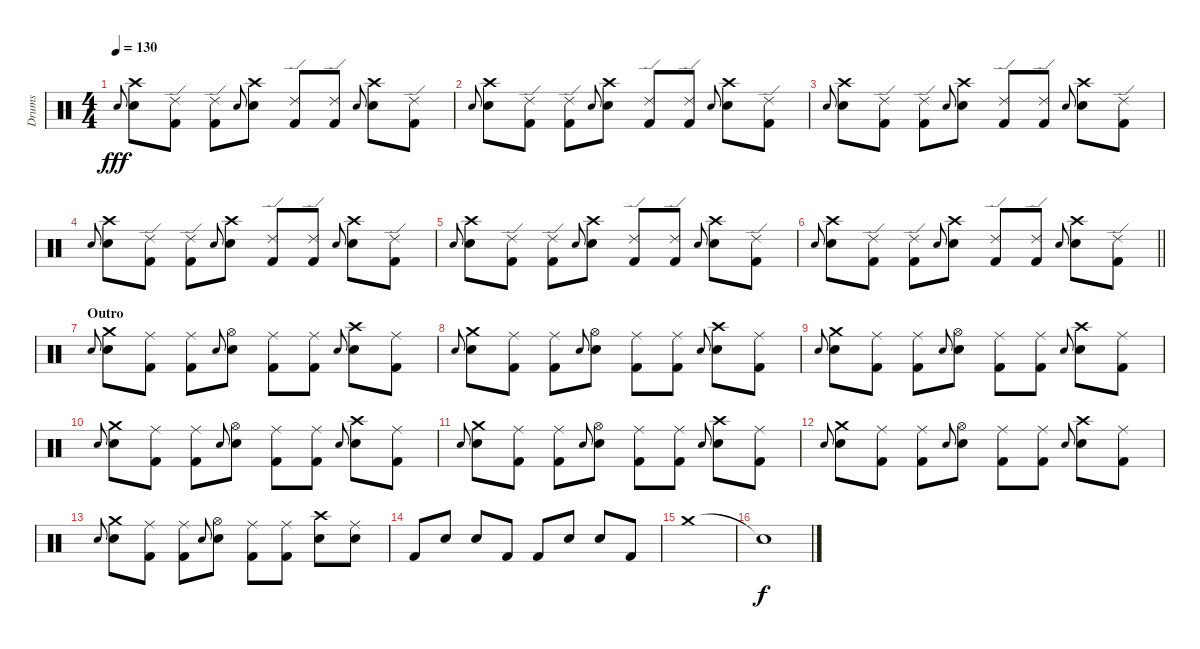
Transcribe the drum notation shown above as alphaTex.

\track ("Drums" "Drums") {instrument percussion}
\staff {score}
\articulation defaults
\ts (4 4)
\tempo 130
\clef neutral
\ks c "Electric Snare (hit)".8{gr onbeat dy fff}
("Crash high (hit)" "Electric Snare (hit)").8 ("Ride (edge) 2" "Kick (hit) 2").8 ("Ride (edge) 2" "Kick (hit) 2").8 "Electric Snare (hit)".8{gr onbeat} ("Crash high (hit)" "Electric Snare (hit)").8 ("Ride (edge) 2" "Kick (hit) 2").8 ("Ride (edge) 2" "Kick (hit) 2").8 "Electric Snare (hit)".8{gr onbeat} ("Crash high (hit)" "Electric Snare (hit)").8 ("Ride (edge) 2" "Kick (hit) 2").8 |
"Electric Snare (hit)".8{gr onbeat} ("Crash high (hit)" "Electric Snare (hit)").8 ("Ride (edge) 2" "Kick (hit) 2").8 ("Ride (edge) 2" "Kick (hit) 2").8 "Electric Snare (hit)".8{gr onbeat} ("Crash high (hit)" "Electric Snare (hit)").8 ("Ride (edge) 2" "Kick (hit) 2").8 ("Ride (edge) 2" "Kick (hit) 2").8 "Electric Snare (hit)".8{gr onbeat} ("Crash high (hit)" "Electric Snare (hit)").8 ("Ride (edge) 2" "Kick (hit) 2").8 |
"Electric Snare (hit)".8{gr onbeat} ("Crash high (hit)" "Electric Snare (hit)").8 ("Ride (edge) 2" "Kick (hit) 2").8 ("Ride (edge) 2" "Kick (hit) 2").8 "Electric Snare (hit)".8{gr onbeat} ("Crash high (hit)" "Electric Snare (hit)").8 ("Ride (edge) 2" "Kick (hit) 2").8 ("Ride (edge) 2" "Kick (hit) 2").8 "Electric Snare (hit)".8{gr onbeat} ("Crash high (hit)" "Electric Snare (hit)").8 ("Ride (edge) 2" "Kick (hit) 2").8 |
"Electric Snare (hit)".8{gr onbeat} ("Crash high (hit)" "Electric Snare (hit)").8 ("Ride (edge) 2" "Kick (hit) 2").8 ("Ride (edge) 2" "Kick (hit) 2").8 "Electric Snare (hit)".8{gr onbeat} ("Crash high (hit)" "Electric Snare (hit)").8 ("Ride (edge) 2" "Kick (hit) 2").8 ("Ride (edge) 2" "Kick (hit) 2").8 "Electric Snare (hit)".8{gr onbeat} ("Crash high (hit)" "Electric Snare (hit)").8 ("Ride (edge) 2" "Kick (hit) 2").8 |
"Electric Snare (hit)".8{gr onbeat} ("Crash high (hit)" "Electric Snare (hit)").8 ("Ride (edge) 2" "Kick (hit) 2").8 ("Ride (edge) 2" "Kick (hit) 2").8 "Electric Snare (hit)".8{gr onbeat} ("Crash high (hit)" "Electric Snare (hit)").8 ("Ride (edge) 2" "Kick (hit) 2").8 ("Ride (edge) 2" "Kick (hit) 2").8 "Electric Snare (hit)".8{gr onbeat} ("Crash high (hit)" "Electric Snare (hit)").8 ("Ride (edge) 2" "Kick (hit) 2").8 |
\barLineRight lightlight "Electric Snare (hit)".8{gr onbeat}
("Crash high (hit)" "Electric Snare (hit)").8 ("Ride (edge) 2" "Kick (hit) 2").8 ("Ride (edge) 2" "Kick (hit) 2").8 "Electric Snare (hit)".8{gr onbeat} ("Crash high (hit)" "Electric Snare (hit)").8 ("Ride (edge) 2" "Kick (hit) 2").8 ("Ride (edge) 2" "Kick (hit) 2").8 "Electric Snare (hit)".8{gr onbeat} ("Crash high (hit)" "Electric Snare (hit)").8 ("Ride (edge) 2" "Kick (hit) 2").8 |
\section ("" "Outro")
"Electric Snare (hit)".8{gr onbeat} ("Crash medium (hit)" "Electric Snare (hit)").8 ("Ride (middle)" "Kick (hit) 2").8 ("Ride (middle)" "Kick (hit) 2").8 "Electric Snare (hit)".8{gr onbeat} ("Hi-Hat (open)" "Electric Snare (hit)").8 ("Ride (middle)" "Kick (hit) 2").8 ("Ride (middle)" "Kick (hit) 2").8 "Electric Snare (hit)".8{gr onbeat} ("Crash high (hit)" "Electric Snare (hit)").8 ("Ride (middle)" "Kick (hit) 2").8 |
"Electric Snare (hit)".8{gr onbeat} ("Crash medium (hit)" "Electric Snare (hit)").8 ("Ride (middle)" "Kick (hit) 2").8 ("Ride (middle)" "Kick (hit) 2").8 "Electric Snare (hit)".8{gr onbeat} ("Hi-Hat (open)" "Electric Snare (hit)").8 ("Ride (middle)" "Kick (hit) 2").8 ("Ride (middle)" "Kick (hit) 2").8 "Electric Snare (hit)".8{gr onbeat} ("Crash high (hit)" "Electric Snare (hit)").8 ("Ride (middle)" "Kick (hit) 2").8 |
"Electric Snare (hit)".8{gr onbeat} ("Crash medium (hit)" "Electric Snare (hit)").8 ("Ride (middle)" "Kick (hit) 2").8 ("Ride (middle)" "Kick (hit) 2").8 "Electric Snare (hit)".8{gr onbeat} ("Hi-Hat (open)" "Electric Snare (hit)").8 ("Ride (middle)" "Kick (hit) 2").8 ("Ride (middle)" "Kick (hit) 2").8 "Electric Snare (hit)".8{gr onbeat} ("Crash high (hit)" "Electric Snare (hit)").8 ("Ride (middle)" "Kick (hit) 2").8 |
"Electric Snare (hit)".8{gr onbeat} ("Crash medium (hit)" "Electric Snare (hit)").8 ("Ride (middle)" "Kick (hit) 2").8 ("Ride (middle)" "Kick (hit) 2").8 "Electric Snare (hit)".8{gr onbeat} ("Hi-Hat (open)" "Electric Snare (hit)").8 ("Ride (middle)" "Kick (hit) 2").8 ("Ride (middle)" "Kick (hit) 2").8 "Electric Snare (hit)".8{gr onbeat} ("Crash high (hit)" "Electric Snare (hit)").8 ("Ride (middle)" "Kick (hit) 2").8 |
"Electric Snare (hit)".8{gr onbeat} ("Crash medium (hit)" "Electric Snare (hit)").8 ("Ride (middle)" "Kick (hit) 2").8 ("Ride (middle)" "Kick (hit) 2").8 "Electric Snare (hit)".8{gr onbeat} ("Hi-Hat (open)" "Electric Snare (hit)").8 ("Ride (middle)" "Kick (hit) 2").8 ("Ride (middle)" "Kick (hit) 2").8 "Electric Snare (hit)".8{gr onbeat} ("Crash high (hit)" "Electric Snare (hit)").8 ("Ride (middle)" "Kick (hit) 2").8 |
"Electric Snare (hit)".8{gr onbeat} ("Crash medium (hit)" "Electric Snare (hit)").8 ("Ride (middle)" "Kick (hit) 2").8 ("Ride (middle)" "Kick (hit) 2").8 "Electric Snare (hit)".8{gr onbeat} ("Hi-Hat (open)" "Electric Snare (hit)").8 ("Ride (middle)" "Kick (hit) 2").8 ("Ride (middle)" "Kick (hit) 2").8 "Electric Snare (hit)".8{gr onbeat} ("Crash high (hit)" "Electric Snare (hit)").8 ("Ride (middle)" "Kick (hit) 2").8 |
"Electric Snare (hit)".8{gr onbeat} ("Crash medium (hit)" "Electric Snare (hit)").8 ("Ride (middle)" "Kick (hit) 2").8 ("Ride (middle)" "Kick (hit) 2").8 "Electric Snare (hit)".8{gr onbeat} ("Hi-Hat (open)" "Electric Snare (hit)").8 ("Ride (middle)" "Kick (hit) 2").8 ("Ride (middle)" "Kick (hit) 2").8 ("Crash high (hit)" "Electric Snare (hit)").8 ("Ride (middle)" "Electric Snare (hit)").8 |
"Kick (hit) 2".8 "Electric Snare (hit)".8 "Electric Snare (hit)".8 "Kick (hit) 2".8 "Kick (hit) 2".8 "Electric Snare (hit)".8 "Electric Snare (hit)".8 "Kick (hit) 2".8 |
"Crash medium (hit)".1 |
"Snare (hit)"{t}.1{dy f}
